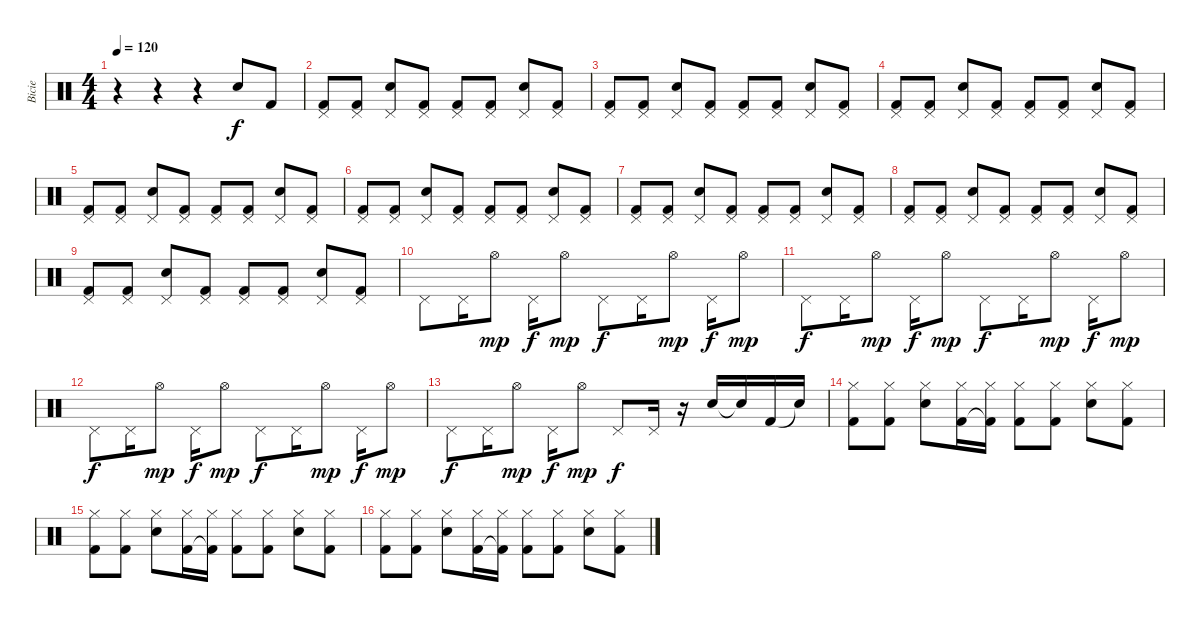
\track ("Bicie" "Bicie") {instrument percussion}
\staff {score}
\articulation defaults
\ts (4 4)
\tempo 120
\clef neutral
\ks c
r.4{dy f} r.4 r.4 "Electric Snare (hit)".8 "Kick (hit) 2".8 |
("Pedal Hi-Hat (hit)" "Kick (hit) 2").8 ("Pedal Hi-Hat (hit)" "Kick (hit) 2").8 ("Pedal Hi-Hat (hit)" "Electric Snare (hit)").8 ("Pedal Hi-Hat (hit)" "Kick (hit) 2").8 ("Pedal Hi-Hat (hit)" "Kick (hit) 2").8 ("Pedal Hi-Hat (hit)" "Kick (hit) 2").8 ("Pedal Hi-Hat (hit)" "Electric Snare (hit)").8 ("Pedal Hi-Hat (hit)" "Kick (hit) 2").8 |
("Pedal Hi-Hat (hit)" "Kick (hit) 2").8 ("Pedal Hi-Hat (hit)" "Kick (hit) 2").8 ("Pedal Hi-Hat (hit)" "Electric Snare (hit)").8 ("Pedal Hi-Hat (hit)" "Kick (hit) 2").8 ("Pedal Hi-Hat (hit)" "Kick (hit) 2").8 ("Pedal Hi-Hat (hit)" "Kick (hit) 2").8 ("Pedal Hi-Hat (hit)" "Electric Snare (hit)").8 ("Pedal Hi-Hat (hit)" "Kick (hit) 2").8 |
("Pedal Hi-Hat (hit)" "Kick (hit) 2").8 ("Pedal Hi-Hat (hit)" "Kick (hit) 2").8 ("Pedal Hi-Hat (hit)" "Electric Snare (hit)").8 ("Pedal Hi-Hat (hit)" "Kick (hit) 2").8 ("Pedal Hi-Hat (hit)" "Kick (hit) 2").8 ("Pedal Hi-Hat (hit)" "Kick (hit) 2").8 ("Pedal Hi-Hat (hit)" "Electric Snare (hit)").8 ("Pedal Hi-Hat (hit)" "Kick (hit) 2").8 |
("Pedal Hi-Hat (hit)" "Kick (hit) 2").8 ("Pedal Hi-Hat (hit)" "Kick (hit) 2").8 ("Pedal Hi-Hat (hit)" "Electric Snare (hit)").8 ("Pedal Hi-Hat (hit)" "Kick (hit) 2").8 ("Pedal Hi-Hat (hit)" "Kick (hit) 2").8 ("Pedal Hi-Hat (hit)" "Kick (hit) 2").8 ("Pedal Hi-Hat (hit)" "Electric Snare (hit)").8 ("Pedal Hi-Hat (hit)" "Kick (hit) 2").8 |
("Pedal Hi-Hat (hit)" "Kick (hit) 2").8 ("Pedal Hi-Hat (hit)" "Kick (hit) 2").8 ("Pedal Hi-Hat (hit)" "Electric Snare (hit)").8 ("Pedal Hi-Hat (hit)" "Kick (hit) 2").8 ("Pedal Hi-Hat (hit)" "Kick (hit) 2").8 ("Pedal Hi-Hat (hit)" "Kick (hit) 2").8 ("Pedal Hi-Hat (hit)" "Electric Snare (hit)").8 ("Pedal Hi-Hat (hit)" "Kick (hit) 2").8 |
("Pedal Hi-Hat (hit)" "Kick (hit) 2").8 ("Pedal Hi-Hat (hit)" "Kick (hit) 2").8 ("Pedal Hi-Hat (hit)" "Electric Snare (hit)").8 ("Pedal Hi-Hat (hit)" "Kick (hit) 2").8 ("Pedal Hi-Hat (hit)" "Kick (hit) 2").8 ("Pedal Hi-Hat (hit)" "Kick (hit) 2").8 ("Pedal Hi-Hat (hit)" "Electric Snare (hit)").8 ("Pedal Hi-Hat (hit)" "Kick (hit) 2").8 |
("Pedal Hi-Hat (hit)" "Kick (hit) 2").8 ("Pedal Hi-Hat (hit)" "Kick (hit) 2").8 ("Pedal Hi-Hat (hit)" "Electric Snare (hit)").8 ("Pedal Hi-Hat (hit)" "Kick (hit) 2").8 ("Pedal Hi-Hat (hit)" "Kick (hit) 2").8 ("Pedal Hi-Hat (hit)" "Kick (hit) 2").8 ("Pedal Hi-Hat (hit)" "Electric Snare (hit)").8 ("Pedal Hi-Hat (hit)" "Kick (hit) 2").8 |
("Pedal Hi-Hat (hit)" "Kick (hit) 2").8 ("Pedal Hi-Hat (hit)" "Kick (hit) 2").8 ("Pedal Hi-Hat (hit)" "Electric Snare (hit)").8 ("Pedal Hi-Hat (hit)" "Kick (hit) 2").8 ("Pedal Hi-Hat (hit)" "Kick (hit) 2").8 ("Pedal Hi-Hat (hit)" "Kick (hit) 2").8 ("Pedal Hi-Hat (hit)" "Electric Snare (hit)").8 ("Pedal Hi-Hat (hit)" "Kick (hit) 2").8 |
"Pedal Hi-Hat (hit)".8 "Pedal Hi-Hat (hit)".16 "Hi-Hat (open)".8{dy mp} "Pedal Hi-Hat (hit)".16{dy f} "Hi-Hat (open)".8{dy mp} "Pedal Hi-Hat (hit)".8{dy f} "Pedal Hi-Hat (hit)".16 "Hi-Hat (open)".8{dy mp} "Pedal Hi-Hat (hit)".16{dy f} "Hi-Hat (open)".8{dy mp} |
"Pedal Hi-Hat (hit)".8{dy f} "Pedal Hi-Hat (hit)".16 "Hi-Hat (open)".8{dy mp} "Pedal Hi-Hat (hit)".16{dy f} "Hi-Hat (open)".8{dy mp} "Pedal Hi-Hat (hit)".8{dy f} "Pedal Hi-Hat (hit)".16 "Hi-Hat (open)".8{dy mp} "Pedal Hi-Hat (hit)".16{dy f} "Hi-Hat (open)".8{dy mp} |
"Pedal Hi-Hat (hit)".8{dy f} "Pedal Hi-Hat (hit)".16 "Hi-Hat (open)".8{dy mp} "Pedal Hi-Hat (hit)".16{dy f} "Hi-Hat (open)".8{dy mp} "Pedal Hi-Hat (hit)".8{dy f} "Pedal Hi-Hat (hit)".16 "Hi-Hat (open)".8{dy mp} "Pedal Hi-Hat (hit)".16{dy f} "Hi-Hat (open)".8{dy mp} |
"Pedal Hi-Hat (hit)".8{dy f} "Pedal Hi-Hat (hit)".16 "Hi-Hat (open)".8{dy mp} "Pedal Hi-Hat (hit)".16{dy f} "Hi-Hat (open)".8{dy mp} "Pedal Hi-Hat (hit)".8{dy f} "Pedal Hi-Hat (hit)".16 r.16 "Electric Snare (hit)".16 "Snare (hit)"{t}.16 "Kick (hit) 2".16 "Snare (hit)"{t}.16 |
("Hi-Hat (closed)" "Kick (hit) 2").8 ("Hi-Hat (closed)" "Kick (hit) 2").8 ("Hi-Hat (closed)" "Electric Snare (hit)").8 ("Hi-Hat (closed)" "Kick (hit) 2").16 ("Hi-Hat (closed)" "Kick (hit) 2"{t}).16 ("Hi-Hat (closed)" "Kick (hit) 2").8 ("Hi-Hat (closed)" "Kick (hit) 2").8 ("Hi-Hat (closed)" "Electric Snare (hit)").8 ("Hi-Hat (closed)" "Kick (hit) 2").8 |
("Hi-Hat (closed)" "Kick (hit) 2").8 ("Hi-Hat (closed)" "Kick (hit) 2").8 ("Hi-Hat (closed)" "Electric Snare (hit)").8 ("Hi-Hat (closed)" "Kick (hit) 2").16 ("Hi-Hat (closed)" "Kick (hit) 2"{t}).16 ("Hi-Hat (closed)" "Kick (hit) 2").8 ("Hi-Hat (closed)" "Kick (hit) 2").8 ("Hi-Hat (closed)" "Electric Snare (hit)").8 ("Hi-Hat (closed)" "Kick (hit) 2").8 |
("Hi-Hat (closed)" "Kick (hit) 2").8 ("Hi-Hat (closed)" "Kick (hit) 2").8 ("Hi-Hat (closed)" "Electric Snare (hit)").8 ("Hi-Hat (closed)" "Kick (hit) 2").16 ("Hi-Hat (closed)" "Kick (hit) 2"{t}).16 ("Hi-Hat (closed)" "Kick (hit) 2").8 ("Hi-Hat (closed)" "Kick (hit) 2").8 ("Hi-Hat (closed)" "Electric Snare (hit)").8 ("Hi-Hat (closed)" "Kick (hit) 2").8
